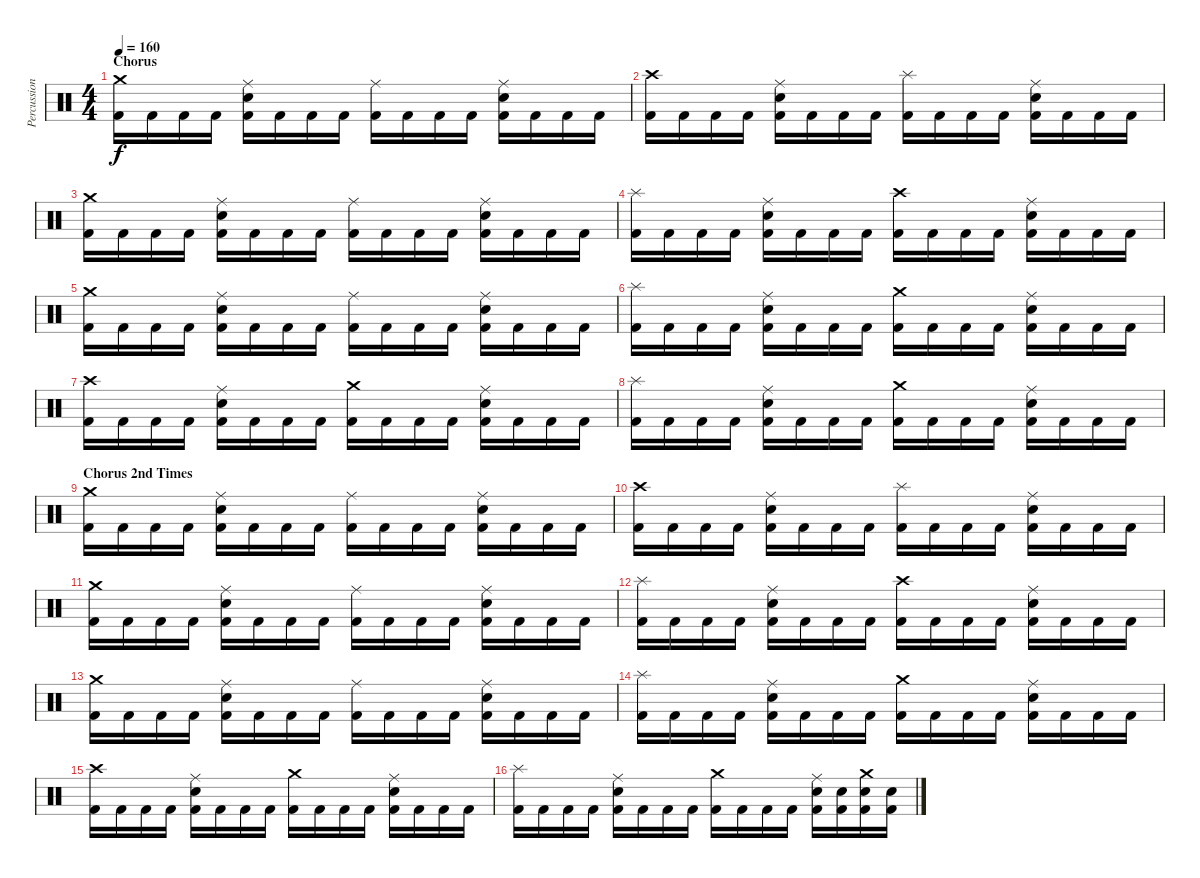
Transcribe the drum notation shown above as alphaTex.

\track ("Percussions" "Percussion") {instrument percussion}
\staff {score}
\articulation defaults
\ts (4 4)
\section ("" "Chorus")
\tempo 160
\clef neutral
\ks c
("Crash medium (hit)" "Kick (hit) 2").16{dy f} "Kick (hit) 2".16 "Kick (hit) 2".16 "Kick (hit) 2".16 ("Electric Snare (hit)" "Ride (middle)" "Kick (hit) 2").16 "Kick (hit) 2".16 "Kick (hit) 2".16 "Kick (hit) 2".16 ("Ride (middle)" "Kick (hit) 2").16 "Kick (hit) 2".16 "Kick (hit) 2".16 "Kick (hit) 2".16 ("Electric Snare (hit)" "Ride (middle)" "Kick (hit) 2").16 "Kick (hit) 2".16 "Kick (hit) 2".16 "Kick (hit) 2".16 |
("Crash high (hit)" "Kick (hit) 2").16 "Kick (hit) 2".16 "Kick (hit) 2".16 "Kick (hit) 2".16 ("Electric Snare (hit)" "Ride (middle)" "Kick (hit) 2").16 "Kick (hit) 2".16 "Kick (hit) 2".16 "Kick (hit) 2".16 ("Splash (hit)" "Kick (hit) 2").16 "Kick (hit) 2".16 "Kick (hit) 2".16 "Kick (hit) 2".16 ("Electric Snare (hit)" "Ride (middle)" "Kick (hit) 2").16 "Kick (hit) 2".16 "Kick (hit) 2".16 "Kick (hit) 2".16 |
("Crash medium (hit)" "Kick (hit) 2").16 "Kick (hit) 2".16 "Kick (hit) 2".16 "Kick (hit) 2".16 ("Electric Snare (hit)" "Ride (middle)" "Kick (hit) 2").16 "Kick (hit) 2".16 "Kick (hit) 2".16 "Kick (hit) 2".16 ("Ride (middle)" "Kick (hit) 2").16 "Kick (hit) 2".16 "Kick (hit) 2".16 "Kick (hit) 2".16 ("Electric Snare (hit)" "Ride (middle)" "Kick (hit) 2").16 "Kick (hit) 2".16 "Kick (hit) 2".16 "Kick (hit) 2".16 |
("Splash (hit)" "Kick (hit) 2").16 "Kick (hit) 2".16 "Kick (hit) 2".16 "Kick (hit) 2".16 ("Electric Snare (hit)" "Ride (middle)" "Kick (hit) 2").16 "Kick (hit) 2".16 "Kick (hit) 2".16 "Kick (hit) 2".16 ("Crash high (hit)" "Kick (hit) 2").16 "Kick (hit) 2".16 "Kick (hit) 2".16 "Kick (hit) 2".16 ("Electric Snare (hit)" "Ride (middle)" "Kick (hit) 2").16 "Kick (hit) 2".16 "Kick (hit) 2".16 "Kick (hit) 2".16 |
("Crash medium (hit)" "Kick (hit) 2").16 "Kick (hit) 2".16 "Kick (hit) 2".16 "Kick (hit) 2".16 ("Electric Snare (hit)" "Ride (middle)" "Kick (hit) 2").16 "Kick (hit) 2".16 "Kick (hit) 2".16 "Kick (hit) 2".16 ("Ride (middle)" "Kick (hit) 2").16 "Kick (hit) 2".16 "Kick (hit) 2".16 "Kick (hit) 2".16 ("Electric Snare (hit)" "Ride (middle)" "Kick (hit) 2").16 "Kick (hit) 2".16 "Kick (hit) 2".16 "Kick (hit) 2".16 |
("Splash (hit)" "Kick (hit) 2").16 "Kick (hit) 2".16 "Kick (hit) 2".16 "Kick (hit) 2".16 ("Electric Snare (hit)" "Ride (middle)" "Kick (hit) 2").16 "Kick (hit) 2".16 "Kick (hit) 2".16 "Kick (hit) 2".16 ("Crash medium (hit)" "Kick (hit) 2").16 "Kick (hit) 2".16 "Kick (hit) 2".16 "Kick (hit) 2".16 ("Electric Snare (hit)" "Ride (middle)" "Kick (hit) 2").16 "Kick (hit) 2".16 "Kick (hit) 2".16 "Kick (hit) 2".16 |
("Crash high (hit)" "Kick (hit) 2").16 "Kick (hit) 2".16 "Kick (hit) 2".16 "Kick (hit) 2".16 ("Electric Snare (hit)" "Ride (middle)" "Kick (hit) 2").16 "Kick (hit) 2".16 "Kick (hit) 2".16 "Kick (hit) 2".16 ("Crash medium (hit)" "Kick (hit) 2").16 "Kick (hit) 2".16 "Kick (hit) 2".16 "Kick (hit) 2".16 ("Electric Snare (hit)" "Ride (middle)" "Kick (hit) 2").16 "Kick (hit) 2".16 "Kick (hit) 2".16 "Kick (hit) 2".16 |
("Splash (hit)" "Kick (hit) 2").16 "Kick (hit) 2".16 "Kick (hit) 2".16 "Kick (hit) 2".16 ("Electric Snare (hit)" "Ride (middle)" "Kick (hit) 2").16 "Kick (hit) 2".16 "Kick (hit) 2".16 "Kick (hit) 2".16 ("Crash medium (hit)" "Kick (hit) 2").16 "Kick (hit) 2".16 "Kick (hit) 2".16 "Kick (hit) 2".16 ("Electric Snare (hit)" "Ride (middle)" "Kick (hit) 2").16 "Kick (hit) 2".16 "Kick (hit) 2".16 "Kick (hit) 2".16 |
\section ("" "Chorus 2nd Times")
("Crash medium (hit)" "Kick (hit) 2").16 "Kick (hit) 2".16 "Kick (hit) 2".16 "Kick (hit) 2".16 ("Electric Snare (hit)" "Ride (middle)" "Kick (hit) 2").16 "Kick (hit) 2".16 "Kick (hit) 2".16 "Kick (hit) 2".16 ("Ride (middle)" "Kick (hit) 2").16 "Kick (hit) 2".16 "Kick (hit) 2".16 "Kick (hit) 2".16 ("Electric Snare (hit)" "Ride (middle)" "Kick (hit) 2").16 "Kick (hit) 2".16 "Kick (hit) 2".16 "Kick (hit) 2".16 |
("Crash high (hit)" "Kick (hit) 2").16 "Kick (hit) 2".16 "Kick (hit) 2".16 "Kick (hit) 2".16 ("Electric Snare (hit)" "Ride (middle)" "Kick (hit) 2").16 "Kick (hit) 2".16 "Kick (hit) 2".16 "Kick (hit) 2".16 ("Splash (hit)" "Kick (hit) 2").16 "Kick (hit) 2".16 "Kick (hit) 2".16 "Kick (hit) 2".16 ("Electric Snare (hit)" "Ride (middle)" "Kick (hit) 2").16 "Kick (hit) 2".16 "Kick (hit) 2".16 "Kick (hit) 2".16 |
("Crash medium (hit)" "Kick (hit) 2").16 "Kick (hit) 2".16 "Kick (hit) 2".16 "Kick (hit) 2".16 ("Electric Snare (hit)" "Ride (middle)" "Kick (hit) 2").16 "Kick (hit) 2".16 "Kick (hit) 2".16 "Kick (hit) 2".16 ("Ride (middle)" "Kick (hit) 2").16 "Kick (hit) 2".16 "Kick (hit) 2".16 "Kick (hit) 2".16 ("Electric Snare (hit)" "Ride (middle)" "Kick (hit) 2").16 "Kick (hit) 2".16 "Kick (hit) 2".16 "Kick (hit) 2".16 |
("Splash (hit)" "Kick (hit) 2").16 "Kick (hit) 2".16 "Kick (hit) 2".16 "Kick (hit) 2".16 ("Electric Snare (hit)" "Ride (middle)" "Kick (hit) 2").16 "Kick (hit) 2".16 "Kick (hit) 2".16 "Kick (hit) 2".16 ("Crash high (hit)" "Kick (hit) 2").16 "Kick (hit) 2".16 "Kick (hit) 2".16 "Kick (hit) 2".16 ("Electric Snare (hit)" "Ride (middle)" "Kick (hit) 2").16 "Kick (hit) 2".16 "Kick (hit) 2".16 "Kick (hit) 2".16 |
("Crash medium (hit)" "Kick (hit) 2").16 "Kick (hit) 2".16 "Kick (hit) 2".16 "Kick (hit) 2".16 ("Electric Snare (hit)" "Ride (middle)" "Kick (hit) 2").16 "Kick (hit) 2".16 "Kick (hit) 2".16 "Kick (hit) 2".16 ("Ride (middle)" "Kick (hit) 2").16 "Kick (hit) 2".16 "Kick (hit) 2".16 "Kick (hit) 2".16 ("Electric Snare (hit)" "Ride (middle)" "Kick (hit) 2").16 "Kick (hit) 2".16 "Kick (hit) 2".16 "Kick (hit) 2".16 |
("Splash (hit)" "Kick (hit) 2").16 "Kick (hit) 2".16 "Kick (hit) 2".16 "Kick (hit) 2".16 ("Electric Snare (hit)" "Ride (middle)" "Kick (hit) 2").16 "Kick (hit) 2".16 "Kick (hit) 2".16 "Kick (hit) 2".16 ("Crash medium (hit)" "Kick (hit) 2").16 "Kick (hit) 2".16 "Kick (hit) 2".16 "Kick (hit) 2".16 ("Electric Snare (hit)" "Ride (middle)" "Kick (hit) 2").16 "Kick (hit) 2".16 "Kick (hit) 2".16 "Kick (hit) 2".16 |
("Crash high (hit)" "Kick (hit) 2").16 "Kick (hit) 2".16 "Kick (hit) 2".16 "Kick (hit) 2".16 ("Electric Snare (hit)" "Ride (middle)" "Kick (hit) 2").16 "Kick (hit) 2".16 "Kick (hit) 2".16 "Kick (hit) 2".16 ("Crash medium (hit)" "Kick (hit) 2").16 "Kick (hit) 2".16 "Kick (hit) 2".16 "Kick (hit) 2".16 ("Electric Snare (hit)" "Ride (middle)" "Kick (hit) 2").16 "Kick (hit) 2".16 "Kick (hit) 2".16 "Kick (hit) 2".16 |
("Splash (hit)" "Kick (hit) 2").16 "Kick (hit) 2".16 "Kick (hit) 2".16 "Kick (hit) 2".16 ("Electric Snare (hit)" "Ride (middle)" "Kick (hit) 2").16 "Kick (hit) 2".16 "Kick (hit) 2".16 "Kick (hit) 2".16 ("Crash medium (hit)" "Kick (hit) 2").16 "Kick (hit) 2".16 "Kick (hit) 2".16 "Kick (hit) 2".16 ("Electric Snare (hit)" "Ride (middle)" "Kick (hit) 2").16 ("Electric Snare (hit)" "Kick (hit) 2").16 ("Electric Snare (hit)" "Crash medium (hit)" "Kick (hit) 2").16 ("Electric Snare (hit)" "Kick (hit) 2").16
